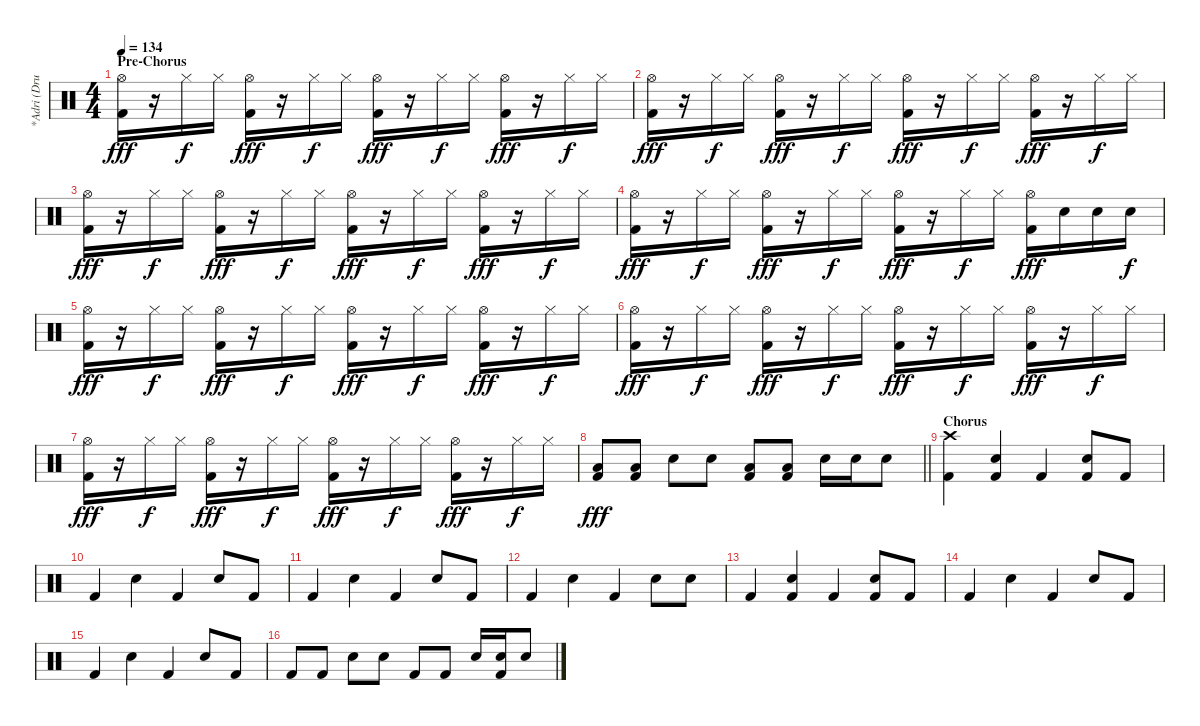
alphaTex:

\track ("*Adri (Drum)" "*Adri (Dru") {instrument percussion}
\staff {score}
\articulation defaults
\ts (4 4)
\section ("" "Pre-Chorus")
\tempo 134
\clef neutral
\ks c
("Hi-Hat (open)" "Kick (hit) 2").16{dy fff} r.16 "Hi-Hat (closed)".16{dy f} "Hi-Hat (closed)".16 ("Hi-Hat (open)" "Kick (hit) 2").16{dy fff} r.16 "Hi-Hat (closed)".16{dy f} "Hi-Hat (closed)".16 ("Hi-Hat (open)" "Kick (hit) 2").16{dy fff} r.16 "Hi-Hat (closed)".16{dy f} "Hi-Hat (closed)".16 ("Hi-Hat (open)" "Kick (hit) 2").16{dy fff} r.16 "Hi-Hat (closed)".16{dy f} "Hi-Hat (closed)".16 |
("Hi-Hat (open)" "Kick (hit) 2").16{dy fff} r.16 "Hi-Hat (closed)".16{dy f} "Hi-Hat (closed)".16 ("Hi-Hat (open)" "Kick (hit) 2").16{dy fff} r.16 "Hi-Hat (closed)".16{dy f} "Hi-Hat (closed)".16 ("Hi-Hat (open)" "Kick (hit) 2").16{dy fff} r.16 "Hi-Hat (closed)".16{dy f} "Hi-Hat (closed)".16 ("Hi-Hat (open)" "Kick (hit) 2").16{dy fff} r.16 "Hi-Hat (closed)".16{dy f} "Hi-Hat (closed)".16 |
("Hi-Hat (open)" "Kick (hit) 2").16{dy fff} r.16 "Hi-Hat (closed)".16{dy f} "Hi-Hat (closed)".16 ("Hi-Hat (open)" "Kick (hit) 2").16{dy fff} r.16 "Hi-Hat (closed)".16{dy f} "Hi-Hat (closed)".16 ("Hi-Hat (open)" "Kick (hit) 2").16{dy fff} r.16 "Hi-Hat (closed)".16{dy f} "Hi-Hat (closed)".16 ("Hi-Hat (open)" "Kick (hit) 2").16{dy fff} r.16 "Hi-Hat (closed)".16{dy f} "Hi-Hat (closed)".16 |
("Hi-Hat (open)" "Kick (hit) 2").16{dy fff} r.16 "Hi-Hat (closed)".16{dy f} "Hi-Hat (closed)".16 ("Hi-Hat (open)" "Kick (hit) 2").16{dy fff} r.16 "Hi-Hat (closed)".16{dy f} "Hi-Hat (closed)".16 ("Hi-Hat (open)" "Kick (hit) 2").16{dy fff} r.16 "Hi-Hat (closed)".16{dy f} "Hi-Hat (closed)".16 ("Hi-Hat (open)" "Kick (hit) 2").16{dy fff} "Snare (hit) 2".16 "Snare (hit) 2".16 "Snare (hit) 2".16{dy f} |
("Hi-Hat (open)" "Kick (hit) 2").16{dy fff} r.16 "Hi-Hat (closed)".16{dy f} "Hi-Hat (closed)".16 ("Hi-Hat (open)" "Kick (hit) 2").16{dy fff} r.16 "Hi-Hat (closed)".16{dy f} "Hi-Hat (closed)".16 ("Hi-Hat (open)" "Kick (hit) 2").16{dy fff} r.16 "Hi-Hat (closed)".16{dy f} "Hi-Hat (closed)".16 ("Hi-Hat (open)" "Kick (hit) 2").16{dy fff} r.16 "Hi-Hat (closed)".16{dy f} "Hi-Hat (closed)".16 |
("Hi-Hat (open)" "Kick (hit) 2").16{dy fff} r.16 "Hi-Hat (closed)".16{dy f} "Hi-Hat (closed)".16 ("Hi-Hat (open)" "Kick (hit) 2").16{dy fff} r.16 "Hi-Hat (closed)".16{dy f} "Hi-Hat (closed)".16 ("Hi-Hat (open)" "Kick (hit) 2").16{dy fff} r.16 "Hi-Hat (closed)".16{dy f} "Hi-Hat (closed)".16 ("Hi-Hat (open)" "Kick (hit) 2").16{dy fff} r.16 "Hi-Hat (closed)".16{dy f} "Hi-Hat (closed)".16 |
("Hi-Hat (open)" "Kick (hit) 2").16{dy fff} r.16 "Hi-Hat (closed)".16{dy f} "Hi-Hat (closed)".16 ("Hi-Hat (open)" "Kick (hit) 2").16{dy fff} r.16 "Hi-Hat (closed)".16{dy f} "Hi-Hat (closed)".16 ("Hi-Hat (open)" "Kick (hit) 2").16{dy fff} r.16 "Hi-Hat (closed)".16{dy f} "Hi-Hat (closed)".16 ("Hi-Hat (open)" "Kick (hit) 2").16{dy fff} r.16 "Hi-Hat (closed)".16{dy f} "Hi-Hat (closed)".16 |
\barLineRight lightlight
("Low Tom (hit)" "Kick (hit) 2").8{dy fff} ("Low Tom (hit)" "Kick (hit) 2").8 "Snare (hit) 2".8 "Snare (hit) 2".8 ("Low Tom (hit)" "Kick (hit) 2").8 ("Low Tom (hit)" "Kick (hit) 2").8 "Snare (hit) 2".16 "Snare (hit) 2".16 "Snare (hit) 2".8 |
\section ("" "Chorus")
("Crash high (hit)" "Kick (hit) 2").4 ("Snare (hit) 2" "Kick (hit) 2").4 "Kick (hit) 2".4 ("Snare (hit) 2" "Kick (hit) 2").8 "Kick (hit) 2".8 |
"Kick (hit) 2".4 "Snare (hit) 2".4 "Kick (hit) 2".4 "Snare (hit) 2".8 "Kick (hit) 2".8 |
"Kick (hit) 2".4 "Snare (hit) 2".4 "Kick (hit) 2".4 "Snare (hit) 2".8 "Kick (hit) 2".8 |
"Kick (hit) 2".4 "Snare (hit) 2".4 "Kick (hit) 2".4 "Snare (hit) 2".8 "Snare (hit) 2".8 |
"Kick (hit) 2".4 ("Snare (hit) 2" "Kick (hit) 2").4 "Kick (hit) 2".4 ("Snare (hit) 2" "Kick (hit) 2").8 "Kick (hit) 2".8 |
"Kick (hit) 2".4 "Snare (hit) 2".4 "Kick (hit) 2".4 "Snare (hit) 2".8 "Kick (hit) 2".8 |
"Kick (hit) 2".4 "Snare (hit) 2".4 "Kick (hit) 2".4 "Snare (hit) 2".8 "Kick (hit) 2".8 |
"Kick (hit) 2".8 "Kick (hit) 2".8 "Snare (hit) 2".8 "Snare (hit) 2".8 "Kick (hit) 2".8 "Kick (hit) 2".8 "Snare (hit) 2".16 ("Snare (hit) 2" "Kick (hit) 2").16 "Snare (hit) 2".8
